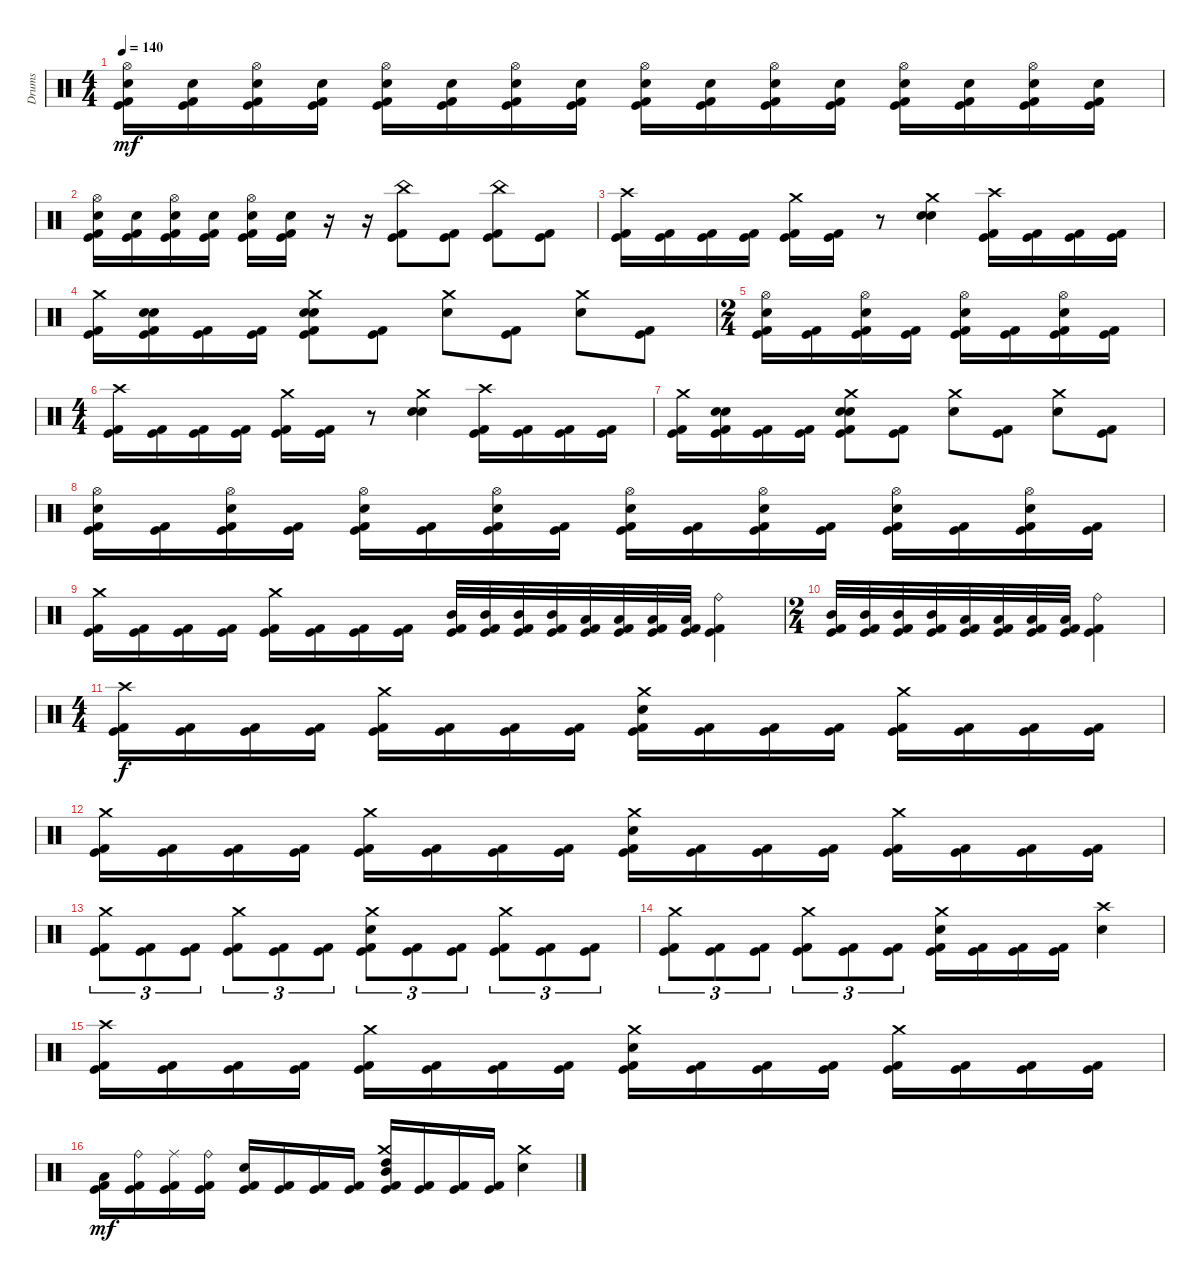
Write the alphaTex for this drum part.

\track ("Drums" "Drums") {instrument percussion}
\staff {score}
\articulation defaults
\ts (4 4)
\tempo 140
\clef neutral
\ks c
("Hi-Hat (open)" "Electric Snare (hit)" "Kick (hit) 2" "Kick (hit)").16{dy mf} ("Electric Snare (hit)" "Kick (hit) 2" "Kick (hit)").16 ("Hi-Hat (open)" "Electric Snare (hit)" "Kick (hit) 2" "Kick (hit)").16 ("Electric Snare (hit)" "Kick (hit) 2" "Kick (hit)").16 ("Hi-Hat (open)" "Electric Snare (hit)" "Kick (hit) 2" "Kick (hit)").16 ("Electric Snare (hit)" "Kick (hit) 2" "Kick (hit)").16 ("Hi-Hat (open)" "Electric Snare (hit)" "Kick (hit) 2" "Kick (hit)").16 ("Electric Snare (hit)" "Kick (hit) 2" "Kick (hit)").16 ("Hi-Hat (open)" "Electric Snare (hit)" "Kick (hit) 2" "Kick (hit)").16 ("Electric Snare (hit)" "Kick (hit) 2" "Kick (hit)").16 ("Hi-Hat (open)" "Electric Snare (hit)" "Kick (hit) 2" "Kick (hit)").16 ("Electric Snare (hit)" "Kick (hit) 2" "Kick (hit)").16 ("Hi-Hat (open)" "Electric Snare (hit)" "Kick (hit) 2" "Kick (hit)").16 ("Electric Snare (hit)" "Kick (hit) 2" "Kick (hit)").16 ("Hi-Hat (open)" "Electric Snare (hit)" "Kick (hit) 2" "Kick (hit)").16 ("Electric Snare (hit)" "Kick (hit) 2" "Kick (hit)").16 |
("Hi-Hat (open)" "Electric Snare (hit)" "Kick (hit) 2" "Kick (hit)").16 ("Electric Snare (hit)" "Kick (hit) 2" "Kick (hit)").16 ("Hi-Hat (open)" "Electric Snare (hit)" "Kick (hit) 2" "Kick (hit)").16 ("Electric Snare (hit)" "Kick (hit) 2" "Kick (hit)").16 ("Hi-Hat (open)" "Electric Snare (hit)" "Kick (hit) 2" "Kick (hit)").16 ("Electric Snare (hit)" "Kick (hit) 2" "Kick (hit)").16 r.16 r.16 ("China (hit)" "Kick (hit) 2" "Kick (hit)").8 ("Kick (hit) 2" "Kick (hit)").8 ("China (hit)" "Kick (hit) 2" "Kick (hit)").8 ("Kick (hit) 2" "Kick (hit)").8 |
("Crash high (hit)" "Kick (hit) 2" "Kick (hit)").16 ("Kick (hit) 2" "Kick (hit)").16 ("Kick (hit) 2" "Kick (hit)").16 ("Kick (hit) 2" "Kick (hit)").16 ("Crash medium (hit)" "Kick (hit) 2" "Kick (hit)").16 ("Kick (hit) 2" "Kick (hit)").16 r.8 ("Crash medium (hit)" "Electric Snare (hit)" "Electric Snare (hit)").4 ("Crash high (hit)" "Kick (hit) 2" "Kick (hit)").16 ("Kick (hit) 2" "Kick (hit)").16 ("Kick (hit) 2" "Kick (hit)").16 ("Kick (hit) 2" "Kick (hit)").16 |
("Kick (hit) 2" "Crash medium (hit)" "Kick (hit)").16 ("Electric Snare (hit)" "Kick (hit) 2" "Electric Snare (hit)" "Kick (hit)").16 ("Kick (hit) 2" "Kick (hit)").16 ("Kick (hit) 2" "Kick (hit)").16 ("Electric Snare (hit)" "Kick (hit) 2" "Crash medium (hit)" "Electric Snare (hit)" "Kick (hit)").8 ("Kick (hit) 2" "Kick (hit)").8 ("Crash medium (hit)" "Electric Snare (hit)").8 ("Kick (hit) 2" "Kick (hit)").8 ("Crash medium (hit)" "Electric Snare (hit)").8 ("Kick (hit) 2" "Kick (hit)").8 |
\ts (2 4)
("Hi-Hat (open)" "Electric Snare (hit)" "Kick (hit) 2" "Kick (hit)").16 ("Kick (hit) 2" "Kick (hit)").16 ("Hi-Hat (open)" "Electric Snare (hit)" "Kick (hit) 2" "Kick (hit)").16 ("Kick (hit) 2" "Kick (hit)").16 ("Hi-Hat (open)" "Electric Snare (hit)" "Kick (hit) 2" "Kick (hit)").16 ("Kick (hit) 2" "Kick (hit)").16 ("Hi-Hat (open)" "Electric Snare (hit)" "Kick (hit) 2" "Kick (hit)").16 ("Kick (hit) 2" "Kick (hit)").16 |
\ts (4 4)
("Crash high (hit)" "Kick (hit) 2" "Kick (hit)").16 ("Kick (hit) 2" "Kick (hit)").16 ("Kick (hit) 2" "Kick (hit)").16 ("Kick (hit) 2" "Kick (hit)").16 ("Crash medium (hit)" "Kick (hit) 2" "Kick (hit)").16 ("Kick (hit) 2" "Kick (hit)").16 r.8 ("Crash medium (hit)" "Electric Snare (hit)" "Electric Snare (hit)").4 ("Crash high (hit)" "Kick (hit) 2" "Kick (hit)").16 ("Kick (hit) 2" "Kick (hit)").16 ("Kick (hit) 2" "Kick (hit)").16 ("Kick (hit) 2" "Kick (hit)").16 |
("Kick (hit) 2" "Crash medium (hit)" "Kick (hit)").16 ("Electric Snare (hit)" "Kick (hit) 2" "Electric Snare (hit)" "Kick (hit)").16 ("Kick (hit) 2" "Kick (hit)").16 ("Kick (hit) 2" "Kick (hit)").16 ("Electric Snare (hit)" "Kick (hit) 2" "Crash medium (hit)" "Electric Snare (hit)" "Kick (hit)").8 ("Kick (hit) 2" "Kick (hit)").8 ("Crash medium (hit)" "Electric Snare (hit)").8 ("Kick (hit) 2" "Kick (hit)").8 ("Crash medium (hit)" "Electric Snare (hit)").8 ("Kick (hit) 2" "Kick (hit)").8 |
("Hi-Hat (open)" "Electric Snare (hit)" "Kick (hit) 2" "Kick (hit)").16 ("Kick (hit) 2" "Kick (hit)").16 ("Hi-Hat (open)" "Electric Snare (hit)" "Kick (hit) 2" "Kick (hit)").16 ("Kick (hit) 2" "Kick (hit)").16 ("Hi-Hat (open)" "Electric Snare (hit)" "Kick (hit) 2" "Kick (hit)").16 ("Kick (hit) 2" "Kick (hit)").16 ("Hi-Hat (open)" "Electric Snare (hit)" "Kick (hit) 2" "Kick (hit)").16 ("Kick (hit) 2" "Kick (hit)").16 ("Hi-Hat (open)" "Electric Snare (hit)" "Kick (hit) 2" "Kick (hit)").16 ("Kick (hit) 2" "Kick (hit)").16 ("Hi-Hat (open)" "Electric Snare (hit)" "Kick (hit) 2" "Kick (hit)").16 ("Kick (hit) 2" "Kick (hit)").16 ("Hi-Hat (open)" "Electric Snare (hit)" "Kick (hit) 2" "Kick (hit)").16 ("Kick (hit) 2" "Kick (hit)").16 ("Hi-Hat (open)" "Electric Snare (hit)" "Kick (hit) 2" "Kick (hit)").16 ("Kick (hit) 2" "Kick (hit)").16 |
("Crash medium (hit)" "Kick (hit) 2" "Kick (hit)").16 ("Kick (hit) 2" "Kick (hit)").16 ("Kick (hit) 2" "Kick (hit)").16 ("Kick (hit) 2" "Kick (hit)").16 ("Crash medium (hit)" "Kick (hit) 2" "Kick (hit)").16 ("Kick (hit) 2" "Kick (hit)").16 ("Kick (hit) 2" "Kick (hit)").16 ("Kick (hit) 2" "Kick (hit)").16 ("Mid Tom (hit)" "Kick (hit) 2" "Kick (hit)").32 ("Mid Tom (hit)" "Kick (hit) 2" "Kick (hit)").32 ("Mid Tom (hit)" "Kick (hit) 2" "Kick (hit)").32 ("Mid Tom (hit)" "Kick (hit) 2" "Kick (hit)").32 ("Low Tom (hit)" "Kick (hit) 2" "Kick (hit)").32 ("Low Tom (hit)" "Kick (hit) 2" "Kick (hit)").32 ("Low Tom (hit)" "Kick (hit) 2" "Kick (hit)").32 ("Low Tom (hit)" "Kick (hit) 2" "Kick (hit)").32 ("Ride (bell)" "Kick (hit) 2" "Kick (hit)").4 |
\ts (2 4)
("Mid Tom (hit)" "Kick (hit) 2" "Kick (hit)").32 ("Mid Tom (hit)" "Kick (hit) 2" "Kick (hit)").32 ("Mid Tom (hit)" "Kick (hit) 2" "Kick (hit)").32 ("Mid Tom (hit)" "Kick (hit) 2" "Kick (hit)").32 ("Low Tom (hit)" "Kick (hit) 2" "Kick (hit)").32 ("Low Tom (hit)" "Kick (hit) 2" "Kick (hit)").32 ("Low Tom (hit)" "Kick (hit) 2" "Kick (hit)").32 ("Low Tom (hit)" "Kick (hit) 2" "Kick (hit)").32 ("Ride (bell)" "Kick (hit) 2" "Kick (hit)").4 |
\ts (4 4)
("Crash high (hit)" "Kick (hit) 2" "Kick (hit)").16{dy f} ("Kick (hit) 2" "Kick (hit)").16 ("Kick (hit) 2" "Kick (hit)").16 ("Kick (hit) 2" "Kick (hit)").16 ("Crash medium (hit)" "Kick (hit) 2" "Kick (hit)").16 ("Kick (hit) 2" "Kick (hit)").16 ("Kick (hit) 2" "Kick (hit)").16 ("Kick (hit) 2" "Kick (hit)").16 ("Crash medium (hit)" "Electric Snare (hit)" "Kick (hit) 2" "Kick (hit)").16 ("Kick (hit) 2" "Kick (hit)").16 ("Kick (hit) 2" "Kick (hit)").16 ("Kick (hit) 2" "Kick (hit)").16 ("Crash medium (hit)" "Kick (hit) 2" "Kick (hit)").16 ("Kick (hit) 2" "Kick (hit)").16 ("Kick (hit) 2" "Kick (hit)").16 ("Kick (hit) 2" "Kick (hit)").16 |
("Crash medium (hit)" "Kick (hit) 2" "Kick (hit)").16 ("Kick (hit) 2" "Kick (hit)").16 ("Kick (hit) 2" "Kick (hit)").16 ("Kick (hit) 2" "Kick (hit)").16 ("Crash medium (hit)" "Kick (hit) 2" "Kick (hit)").16 ("Kick (hit) 2" "Kick (hit)").16 ("Kick (hit) 2" "Kick (hit)").16 ("Kick (hit) 2" "Kick (hit)").16 ("Crash medium (hit)" "Electric Snare (hit)" "Kick (hit) 2" "Kick (hit)").16 ("Kick (hit) 2" "Kick (hit)").16 ("Kick (hit) 2" "Kick (hit)").16 ("Kick (hit) 2" "Kick (hit)").16 ("Crash medium (hit)" "Kick (hit) 2" "Kick (hit)").16 ("Kick (hit) 2" "Kick (hit)").16 ("Kick (hit) 2" "Kick (hit)").16 ("Kick (hit) 2" "Kick (hit)").16 |
("Crash medium (hit)" "Kick (hit) 2" "Kick (hit)").8{tu (3 2)} ("Kick (hit) 2" "Kick (hit)").8{tu (3 2)} ("Kick (hit) 2" "Kick (hit)").8{tu (3 2)} ("Crash medium (hit)" "Kick (hit) 2" "Kick (hit)").8{tu (3 2)} ("Kick (hit) 2" "Kick (hit)").8{tu (3 2)} ("Kick (hit) 2" "Kick (hit)").8{tu (3 2)} ("Crash medium (hit)" "Electric Snare (hit)" "Kick (hit) 2" "Kick (hit)").8{tu (3 2)} ("Kick (hit) 2" "Kick (hit)").8{tu (3 2)} ("Kick (hit) 2" "Kick (hit)").8{tu (3 2)} ("Crash medium (hit)" "Kick (hit) 2" "Kick (hit)").8{tu (3 2)} ("Kick (hit) 2" "Kick (hit)").8{tu (3 2)} ("Kick (hit) 2" "Kick (hit)").8{tu (3 2)} |
("Crash medium (hit)" "Kick (hit) 2" "Kick (hit)").8{tu (3 2)} ("Kick (hit) 2" "Kick (hit)").8{tu (3 2)} ("Kick (hit) 2" "Kick (hit)").8{tu (3 2)} ("Crash medium (hit)" "Kick (hit) 2" "Kick (hit)").8{tu (3 2)} ("Kick (hit) 2" "Kick (hit)").8{tu (3 2)} ("Kick (hit) 2" "Kick (hit)").8{tu (3 2)} ("Crash medium (hit)" "Electric Snare (hit)" "Kick (hit) 2" "Kick (hit)").16 ("Kick (hit) 2" "Kick (hit)").16 ("Kick (hit) 2" "Kick (hit)").16 ("Kick (hit) 2" "Kick (hit)").16 ("Crash high (hit)" "Electric Snare (hit)").4 |
("Crash high (hit)" "Kick (hit) 2" "Kick (hit)").16 ("Kick (hit) 2" "Kick (hit)").16 ("Kick (hit) 2" "Kick (hit)").16 ("Kick (hit) 2" "Kick (hit)").16 ("Crash medium (hit)" "Kick (hit) 2" "Kick (hit)").16 ("Kick (hit) 2" "Kick (hit)").16 ("Kick (hit) 2" "Kick (hit)").16 ("Kick (hit) 2" "Kick (hit)").16 ("Crash medium (hit)" "Electric Snare (hit)" "Kick (hit) 2" "Kick (hit)").16 ("Kick (hit) 2" "Kick (hit)").16 ("Kick (hit) 2" "Kick (hit)").16 ("Kick (hit) 2" "Kick (hit)").16 ("Crash medium (hit)" "Kick (hit) 2" "Kick (hit)").16 ("Kick (hit) 2" "Kick (hit)").16 ("Kick (hit) 2" "Kick (hit)").16 ("Kick (hit) 2" "Kick (hit)").16 |
("Low Tom (hit)" "Kick (hit)" "Kick (hit) 2").16{dy mf} ("Ride (bell)" "Kick (hit)" "Kick (hit) 2").16 ("Ride (middle)" "Kick (hit)" "Kick (hit) 2").16 ("Ride (bell)" "Kick (hit)" "Kick (hit) 2").16 ("Electric Snare (hit)" "Kick (hit)" "Kick (hit) 2").16 ("Kick (hit)" "Kick (hit) 2").16 ("Kick (hit)" "Kick (hit) 2").16 ("Kick (hit)" "Kick (hit) 2").16 ("Crash medium (hit)" "High Tom (hit)" "Mid Tom (hit)" "Kick (hit)" "Kick (hit) 2").16 ("Kick (hit)" "Kick (hit) 2").16 ("Kick (hit)" "Kick (hit) 2").16 ("Kick (hit)" "Kick (hit) 2").16 ("Crash medium (hit)" "Electric Snare (hit)").4
